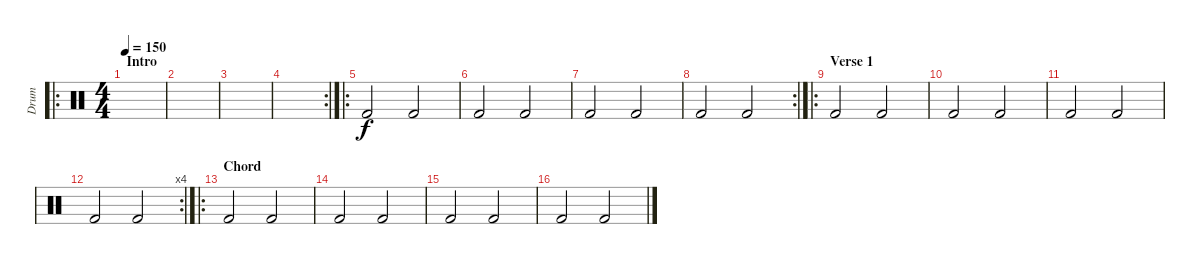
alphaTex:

\track ("Drum" "Drum") {instrument percussion}
\staff {score}
\articulation defaults
\ro
\ts (4 4)
\section ("" "Intro")
\tempo 150
\clef neutral
\ks c
|
|
|
\rc 2
|
\ro "Kick (hit) 2".2 "Kick (hit) 2".2
|
"Kick (hit) 2".2 "Kick (hit) 2".2 |
"Kick (hit) 2".2 "Kick (hit) 2".2 |
\rc 2 "Kick (hit) 2".2 "Kick (hit) 2".2
|
\ro
\section ("" "Verse 1")
"Kick (hit) 2".2 "Kick (hit) 2".2 |
"Kick (hit) 2".2 "Kick (hit) 2".2 |
"Kick (hit) 2".2 "Kick (hit) 2".2 |
\rc 4 "Kick (hit) 2".2 "Kick (hit) 2".2
|
\ro
\section ("" "Chord")
"Kick (hit) 2".2 "Kick (hit) 2".2 |
"Kick (hit) 2".2 "Kick (hit) 2".2 |
"Kick (hit) 2".2 "Kick (hit) 2".2 |
"Kick (hit) 2".2 "Kick (hit) 2".2
